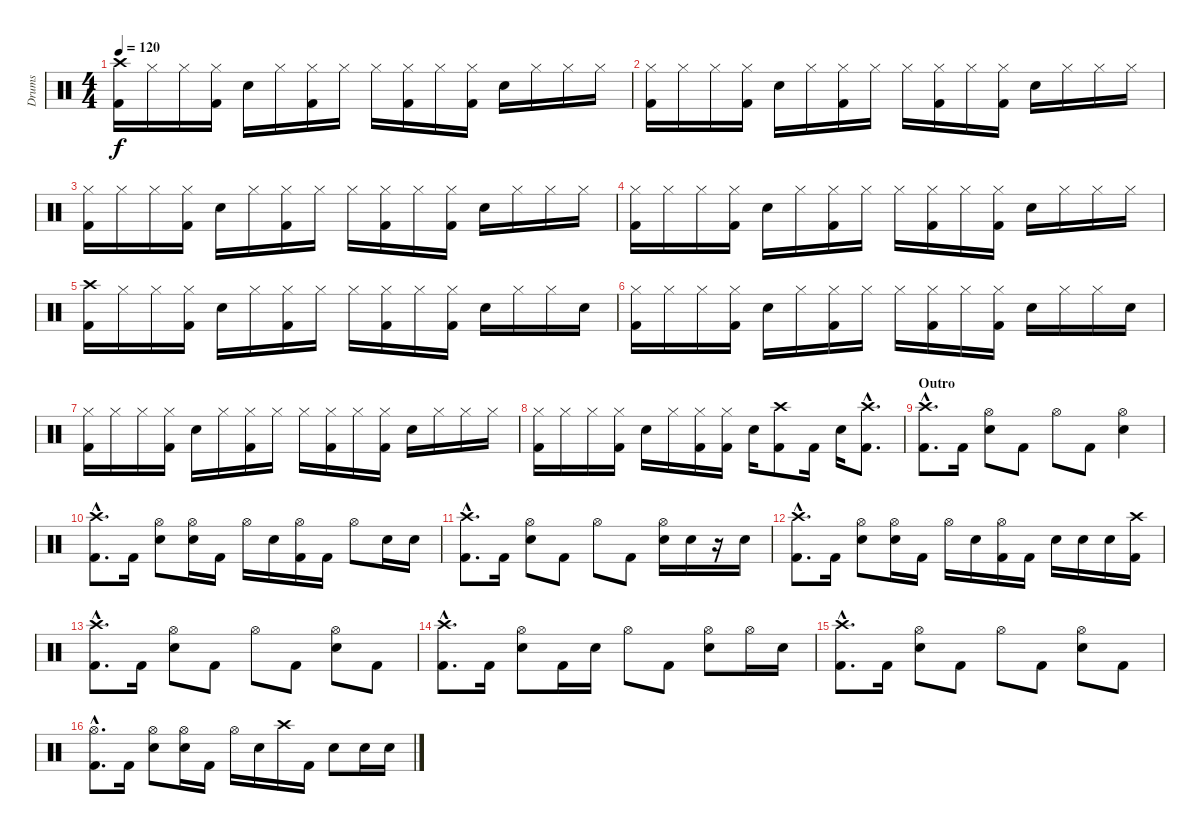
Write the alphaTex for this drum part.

\track ("Drums" "Drums") {instrument percussion}
\staff {score}
\articulation defaults
\ts (4 4)
\tempo 120
\clef neutral
\ks c
("Crash high (hit)" "Kick (hit) 2").16{dy f} "Hi-Hat (closed)".16 "Hi-Hat (closed)".16 ("Hi-Hat (closed)" "Kick (hit) 2").16 "Electric Snare (hit)".16 "Hi-Hat (closed)".16 ("Hi-Hat (closed)" "Kick (hit) 2").16 "Hi-Hat (closed)".16 "Hi-Hat (closed)".16 ("Hi-Hat (closed)" "Kick (hit) 2").16 "Hi-Hat (closed)".16 ("Hi-Hat (closed)" "Kick (hit) 2").16 "Electric Snare (hit)".16 "Hi-Hat (closed)".16 "Hi-Hat (closed)".16 "Hi-Hat (closed)".16 |
("Hi-Hat (closed)" "Kick (hit) 2").16 "Hi-Hat (closed)".16 "Hi-Hat (closed)".16 ("Hi-Hat (closed)" "Kick (hit) 2").16 "Electric Snare (hit)".16 "Hi-Hat (closed)".16 ("Hi-Hat (closed)" "Kick (hit) 2").16 "Hi-Hat (closed)".16 "Hi-Hat (closed)".16 ("Hi-Hat (closed)" "Kick (hit) 2").16 "Hi-Hat (closed)".16 ("Hi-Hat (closed)" "Kick (hit) 2").16 "Electric Snare (hit)".16 "Hi-Hat (closed)".16 "Hi-Hat (closed)".16 "Hi-Hat (closed)".16 |
("Hi-Hat (closed)" "Kick (hit) 2").16 "Hi-Hat (closed)".16 "Hi-Hat (closed)".16 ("Hi-Hat (closed)" "Kick (hit) 2").16 "Electric Snare (hit)".16 "Hi-Hat (closed)".16 ("Hi-Hat (closed)" "Kick (hit) 2").16 "Hi-Hat (closed)".16 "Hi-Hat (closed)".16 ("Hi-Hat (closed)" "Kick (hit) 2").16 "Hi-Hat (closed)".16 ("Hi-Hat (closed)" "Kick (hit) 2").16 "Electric Snare (hit)".16 "Hi-Hat (closed)".16 "Hi-Hat (closed)".16 "Hi-Hat (closed)".16 |
("Hi-Hat (closed)" "Kick (hit) 2").16 "Hi-Hat (closed)".16 "Hi-Hat (closed)".16 ("Hi-Hat (closed)" "Kick (hit) 2").16 "Electric Snare (hit)".16 "Hi-Hat (closed)".16 ("Hi-Hat (closed)" "Kick (hit) 2").16 "Hi-Hat (closed)".16 "Hi-Hat (closed)".16 ("Hi-Hat (closed)" "Kick (hit) 2").16 "Hi-Hat (closed)".16 ("Hi-Hat (closed)" "Kick (hit) 2").16 "Electric Snare (hit)".16 "Hi-Hat (closed)".16 "Hi-Hat (closed)".16 "Hi-Hat (closed)".16 |
("Crash high (hit)" "Kick (hit) 2").16 "Hi-Hat (closed)".16 "Hi-Hat (closed)".16 ("Hi-Hat (closed)" "Kick (hit) 2").16 "Electric Snare (hit)".16 "Hi-Hat (closed)".16 ("Hi-Hat (closed)" "Kick (hit) 2").16 "Hi-Hat (closed)".16 "Hi-Hat (closed)".16 ("Hi-Hat (closed)" "Kick (hit) 2").16 "Hi-Hat (closed)".16 ("Hi-Hat (closed)" "Kick (hit) 2").16 "Electric Snare (hit)".16 "Hi-Hat (closed)".16 "Hi-Hat (closed)".16 "Electric Snare (hit)".16 |
("Hi-Hat (closed)" "Kick (hit) 2").16 "Hi-Hat (closed)".16 "Hi-Hat (closed)".16 ("Hi-Hat (closed)" "Kick (hit) 2").16 "Electric Snare (hit)".16 "Hi-Hat (closed)".16 ("Hi-Hat (closed)" "Kick (hit) 2").16 "Hi-Hat (closed)".16 "Hi-Hat (closed)".16 ("Hi-Hat (closed)" "Kick (hit) 2").16 "Hi-Hat (closed)".16 ("Hi-Hat (closed)" "Kick (hit) 2").16 "Electric Snare (hit)".16 "Hi-Hat (closed)".16 "Hi-Hat (closed)".16 "Electric Snare (hit)".16 |
("Hi-Hat (closed)" "Kick (hit) 2").16 "Hi-Hat (closed)".16 "Hi-Hat (closed)".16 ("Hi-Hat (closed)" "Kick (hit) 2").16 "Electric Snare (hit)".16 "Hi-Hat (closed)".16 ("Hi-Hat (closed)" "Kick (hit) 2").16 "Hi-Hat (closed)".16 "Hi-Hat (closed)".16 ("Hi-Hat (closed)" "Kick (hit) 2").16 "Hi-Hat (closed)".16 ("Hi-Hat (closed)" "Kick (hit) 2").16 "Electric Snare (hit)".16 "Hi-Hat (closed)".16 "Hi-Hat (closed)".16 "Hi-Hat (closed)".16 |
("Hi-Hat (closed)" "Kick (hit) 2").16 "Hi-Hat (closed)".16 "Hi-Hat (closed)".16 ("Hi-Hat (closed)" "Kick (hit) 2").16 "Electric Snare (hit)".16 "Hi-Hat (closed)".16 ("Hi-Hat (closed)" "Kick (hit) 2").16 ("Hi-Hat (closed)" "Kick (hit) 2").16 "Electric Snare (hit)".16 ("Crash high (hit)" "Kick (hit) 2").8 "Kick (hit) 2".16 "Electric Snare (hit)".16 ("Crash high (hit)"{hac} "Kick (hit) 2"{hac}).8{d} |
\section ("" "Outro")
("Crash high (hit)"{hac} "Kick (hit) 2"{hac}).8{d} "Kick (hit) 2".16 ("Hi-Hat (open)" "Electric Snare (hit)").8 "Kick (hit) 2".8 "Hi-Hat (open)".8 "Kick (hit) 2".8 ("Hi-Hat (open)" "Electric Snare (hit)").4 |
("Crash high (hit)"{hac} "Kick (hit) 2"{hac}).8{d} "Kick (hit) 2".16 ("Hi-Hat (open)" "Electric Snare (hit)").8 ("Hi-Hat (open)" "Electric Snare (hit)").16 "Kick (hit) 2".16 "Hi-Hat (open)".16 "Electric Snare (hit)".16 ("Hi-Hat (open)" "Kick (hit) 2").16 "Kick (hit) 2".16 "Hi-Hat (open)".8 "Electric Snare (hit)".16 "Electric Snare (hit)".16 |
("Crash high (hit)"{hac} "Kick (hit) 2"{hac}).8{d} "Kick (hit) 2".16 ("Hi-Hat (open)" "Electric Snare (hit)").8 "Kick (hit) 2".8 "Hi-Hat (open)".8 "Kick (hit) 2".8 ("Hi-Hat (open)" "Electric Snare (hit)").16 "Electric Snare (hit)".16 r.16 "Electric Snare (hit)".16 |
("Crash high (hit)"{hac} "Kick (hit) 2"{hac}).8{d} "Kick (hit) 2".16 ("Hi-Hat (open)" "Electric Snare (hit)").8 ("Hi-Hat (open)" "Electric Snare (hit)").16 "Kick (hit) 2".16 "Hi-Hat (open)".16 "Electric Snare (hit)".16 ("Hi-Hat (open)" "Kick (hit) 2").16 "Kick (hit) 2".16 "Electric Snare (hit)".16 "Electric Snare (hit)".16 "Electric Snare (hit)".16 ("Crash high (hit)" "Kick (hit) 2").16 |
("Crash high (hit)"{hac} "Kick (hit) 2"{hac}).8{d} "Kick (hit) 2".16 ("Hi-Hat (open)" "Electric Snare (hit)").8 "Kick (hit) 2".8 "Hi-Hat (open)".8 "Kick (hit) 2".8 ("Hi-Hat (open)" "Electric Snare (hit)").8 "Kick (hit) 2".8 |
("Crash high (hit)"{hac} "Kick (hit) 2"{hac}).8{d} "Kick (hit) 2".16 ("Hi-Hat (open)" "Electric Snare (hit)").8 "Kick (hit) 2".16 "Electric Snare (hit)".16 "Hi-Hat (open)".8 "Kick (hit) 2".8 ("Hi-Hat (open)" "Electric Snare (hit)").8 "Hi-Hat (open)".16 "Electric Snare (hit)".16 |
("Crash high (hit)"{hac} "Kick (hit) 2"{hac}).8{d} "Kick (hit) 2".16 ("Hi-Hat (open)" "Electric Snare (hit)").8 "Kick (hit) 2".8 "Hi-Hat (open)".8 "Kick (hit) 2".8 ("Hi-Hat (open)" "Electric Snare (hit)").8 "Kick (hit) 2".8 |
("Hi-Hat (open)"{hac} "Kick (hit) 2"{hac}).8{d} "Kick (hit) 2".16 ("Hi-Hat (open)" "Electric Snare (hit)").8 ("Hi-Hat (open)" "Electric Snare (hit)").16 "Kick (hit) 2".16 "Hi-Hat (open)".16 "Electric Snare (hit)".16 "Crash high (hit)".16 "Kick (hit) 2".16 "Electric Snare (hit)".8 "Electric Snare (hit)".16 "Electric Snare (hit)".16
